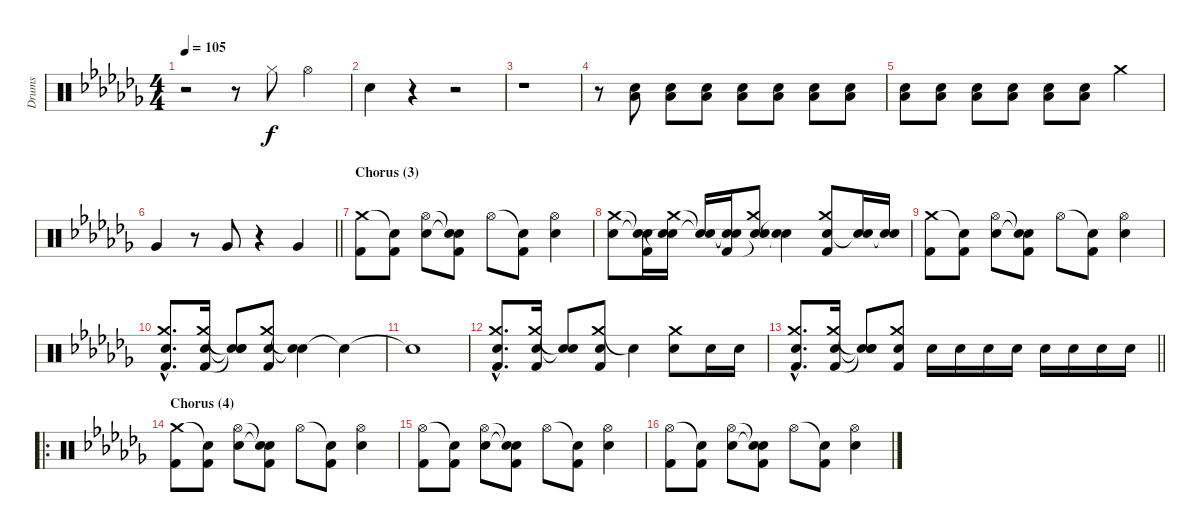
\track ("Drums" "Drums") {instrument percussion}
\staff {score}
\articulation defaults
\ts (4 4)
\tempo 105
\clef neutral
\ks abminor
r.2{dy f} r.8 "Hi-Hat (closed)".8 "Hi-Hat (open)".4 |
"Electric Snare (hit)".4 r.4 r.2 |
r.1 |
r.8 ("Electric Snare (hit)" "Low Floor Tom (hit)").8 ("Electric Snare (hit)" "Low Floor Tom (hit)").8 ("Electric Snare (hit)" "Low Floor Tom (hit)").8 ("Electric Snare (hit)" "Low Floor Tom (hit)").8 ("Electric Snare (hit)" "Low Floor Tom (hit)").8 ("Electric Snare (hit)" "Low Floor Tom (hit)").8 ("Electric Snare (hit)" "Low Floor Tom (hit)").8 |
("Electric Snare (hit)" "Low Floor Tom (hit)").8 ("Electric Snare (hit)" "Low Floor Tom (hit)").8 ("Electric Snare (hit)" "Low Floor Tom (hit)").8 ("Electric Snare (hit)" "Low Floor Tom (hit)").8 ("Electric Snare (hit)" "Low Floor Tom (hit)").8 ("Electric Snare (hit)" "Low Floor Tom (hit)").8 "Crash medium (hit)".4 |
\barLineRight lightlight "Very Low Tom (hit)".4
r.8 "Very Low Tom (hit)".8 r.4 "Very Low Tom (hit)".4 |
\section ("" "Chorus (3)")
("Crash medium (hit)" "Kick (hit) 2").8 ("Snare (hit)"{t} "Kick (hit) 2").8 ("Hi-Hat (open)" "Electric Snare (hit)").8 ("Snare (hit)"{t} "Snare (hit)"{t} "Kick (hit) 2").8 "Hi-Hat (open)".8 ("Snare (hit)"{t} "Kick (hit) 2").8 ("Hi-Hat (open)" "Electric Snare (hit)").4 |
("Crash medium (hit)" "Electric Snare (hit)").8 ("Snare (hit)"{t} "Snare (hit)"{t} "Kick (hit) 2").16 ("Crash medium (hit)" "Electric Snare (hit)" "Snare (hit)"{t}).16 ("Snare (hit)"{t} "Snare (hit)"{t}).16 ("Snare (hit)"{t} "Snare (hit)"{t} "Kick (hit) 2").16 ("Crash medium (hit)" "Electric Snare (hit)" "Snare (hit)"{t}).8 ("Snare (hit)"{t} "Snare (hit)"{t}).4 ("Crash medium (hit)" "Electric Snare (hit)" "Kick (hit) 2").8 ("Electric Snare (hit)" "Snare (hit)"{t}).16 ("Electric Snare (hit)" "Snare (hit)"{t}).16 |
("Crash medium (hit)" "Kick (hit) 2").8 ("Snare (hit)"{t} "Kick (hit) 2").8 ("Hi-Hat (open)" "Electric Snare (hit)").8 ("Snare (hit)"{t} "Snare (hit)"{t} "Kick (hit) 2").8 "Hi-Hat (open)".8 ("Snare (hit)"{t} "Kick (hit) 2").8 ("Hi-Hat (open)" "Electric Snare (hit)").4 |
("Crash medium (hit)"{hac} "Electric Snare (hit)"{hac} "Kick (hit) 2"{hac}).8{d} ("Crash medium (hit)" "Electric Snare (hit)" "Kick (hit) 2").16 ("Snare (hit)"{t} "Snare (hit)"{t} "Snare (hit)"{t}).8 ("Crash medium (hit)" "Electric Snare (hit)" "Kick (hit) 2").8 ("Snare (hit)"{t} "Snare (hit)"{t}).4 "Snare (hit)"{t}.4 |
"Snare (hit)"{t}.1 |
("Crash medium (hit)"{hac} "Electric Snare (hit)"{hac} "Kick (hit) 2"{hac}).8{d} ("Crash medium (hit)" "Electric Snare (hit)" "Kick (hit) 2").16 ("Snare (hit)"{t} "Snare (hit)"{t}).8 ("Crash medium (hit)" "Electric Snare (hit)" "Kick (hit) 2").8 "Snare (hit)"{t}.4 ("Crash medium (hit)" "Electric Snare (hit)").8 "Electric Snare (hit)".16 "Electric Snare (hit)".16 |
\barLineRight lightlight
("Crash medium (hit)"{hac} "Electric Snare (hit)"{hac} "Kick (hit) 2"{hac}).8{d} ("Crash medium (hit)" "Electric Snare (hit)" "Kick (hit) 2").16 ("Snare (hit)"{t} "Snare (hit)"{t} "Snare (hit)"{t}).8 ("Crash medium (hit)" "Electric Snare (hit)" "Kick (hit) 2").8 "Electric Snare (hit)".16 "Electric Snare (hit)".16 "Electric Snare (hit)".16 "Electric Snare (hit)".16 "Electric Snare (hit)".16 "Electric Snare (hit)".16 "Electric Snare (hit)".16 "Electric Snare (hit)".16 |
\ro
\section ("" "Chorus (4)")
("Crash medium (hit)" "Kick (hit) 2").8 ("Snare (hit)"{t} "Kick (hit) 2").8 ("Hi-Hat (open)" "Electric Snare (hit)").8 ("Snare (hit)"{t} "Snare (hit)"{t} "Kick (hit) 2").8 "Hi-Hat (open)".8 ("Snare (hit)"{t} "Kick (hit) 2").8 ("Hi-Hat (open)" "Electric Snare (hit)").4 |
("Hi-Hat (open)" "Kick (hit) 2").8 ("Snare (hit)"{t} "Kick (hit) 2").8 ("Hi-Hat (open)" "Electric Snare (hit)").8 ("Snare (hit)"{t} "Snare (hit)"{t} "Kick (hit) 2").8 "Hi-Hat (open)".8 ("Snare (hit)"{t} "Kick (hit) 2").8 ("Hi-Hat (open)" "Electric Snare (hit)").4 |
("Hi-Hat (open)" "Kick (hit) 2").8 ("Snare (hit)"{t} "Kick (hit) 2").8 ("Hi-Hat (open)" "Electric Snare (hit)").8 ("Snare (hit)"{t} "Snare (hit)"{t} "Kick (hit) 2").8 "Hi-Hat (open)".8 ("Snare (hit)"{t} "Kick (hit) 2").8 ("Hi-Hat (open)" "Electric Snare (hit)").4
